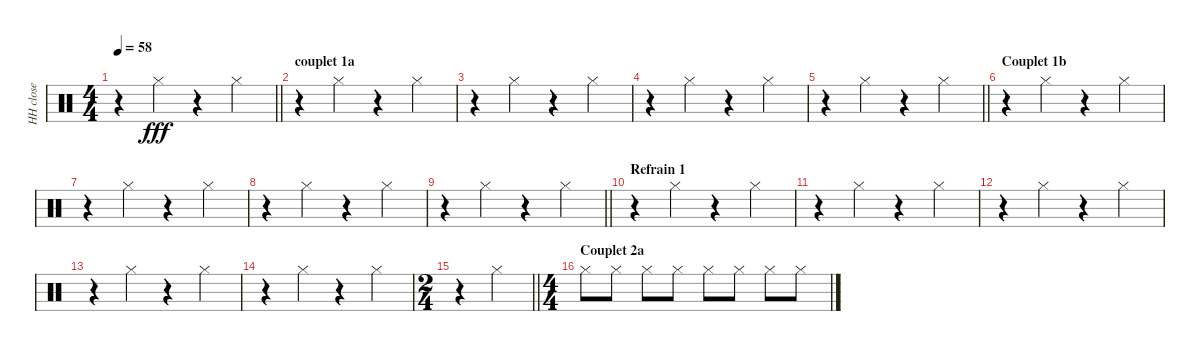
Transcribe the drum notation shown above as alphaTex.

\track ("HH close" "HH close") {instrument percussion}
\staff {score}
\articulation defaults
\ts (4 4)
\tempo 58
\clef neutral
\barLineRight lightlight
\ks c
r.4{dy fff} "Hi-Hat (closed)".4 r.4 "Hi-Hat (closed)".4 |
\section ("" "couplet 1a")
r.4 "Hi-Hat (closed)".4 r.4 "Hi-Hat (closed)".4 |
r.4 "Hi-Hat (closed)".4 r.4 "Hi-Hat (closed)".4 |
r.4 "Hi-Hat (closed)".4 r.4 "Hi-Hat (closed)".4 |
\barLineRight lightlight
r.4 "Hi-Hat (closed)".4 r.4 "Hi-Hat (closed)".4 |
\section ("" "Couplet 1b")
r.4 "Hi-Hat (closed)".4 r.4 "Hi-Hat (closed)".4 |
r.4 "Hi-Hat (closed)".4 r.4 "Hi-Hat (closed)".4 |
r.4 "Hi-Hat (closed)".4 r.4 "Hi-Hat (closed)".4 |
\barLineRight lightlight
r.4 "Hi-Hat (closed)".4 r.4 "Hi-Hat (closed)".4 |
\section ("" "Refrain 1")
r.4 "Hi-Hat (closed)".4 r.4 "Hi-Hat (closed)".4 |
r.4 "Hi-Hat (closed)".4 r.4 "Hi-Hat (closed)".4 |
r.4 "Hi-Hat (closed)".4 r.4 "Hi-Hat (closed)".4 |
r.4 "Hi-Hat (closed)".4 r.4 "Hi-Hat (closed)".4 |
r.4 "Hi-Hat (closed)".4 r.4 "Hi-Hat (closed)".4 |
\ts (2 4)
\barLineRight lightlight
r.4 "Hi-Hat (closed)".4 |
\ts (4 4)
\section ("" "Couplet 2a")
"Hi-Hat (closed)".8 "Hi-Hat (closed)".8 "Hi-Hat (closed)".8 "Hi-Hat (closed)".8 "Hi-Hat (closed)".8 "Hi-Hat (closed)".8 "Hi-Hat (closed)".8 "Hi-Hat (closed)".8
